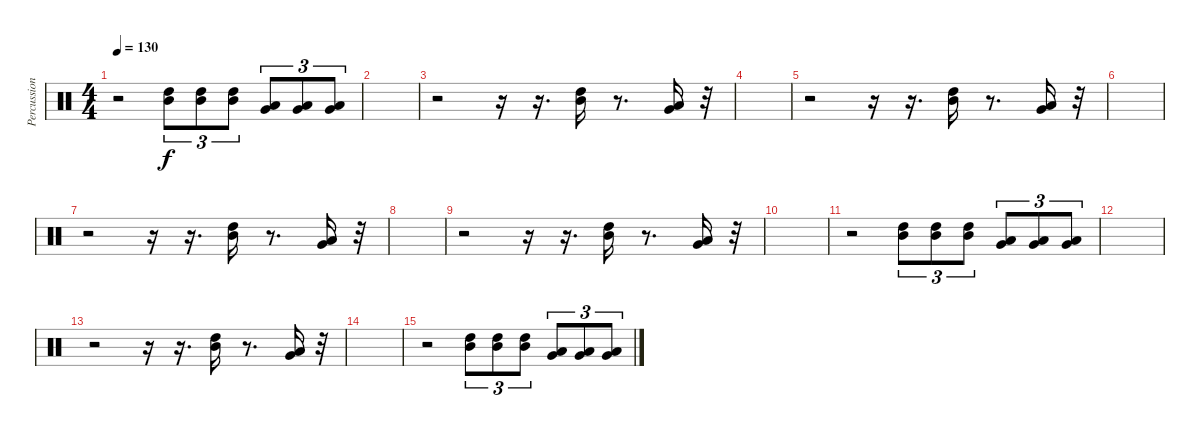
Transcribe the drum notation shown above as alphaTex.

\track ("Percussion" "Percussion") {instrument percussion bank 177}
\staff {score}
\articulation defaults
\ts (4 4)
\tempo 130
\clef neutral
\ks c
r.2{dy f} ("High Tom (hit)" "Mid Tom (hit)").8{tu (3 2)} ("High Tom (hit)" "Mid Tom (hit)").8{tu (3 2)} ("High Tom (hit)" "Mid Tom (hit)").8{tu (3 2)} ("Low Tom (hit)" "Very Low Tom (hit)").8{tu (3 2)} ("Low Tom (hit)" "Very Low Tom (hit)").8{tu (3 2)} ("Low Tom (hit)" "Very Low Tom (hit)").8{tu (3 2)} |
|
r.2 r.16 r.16{d} ("High Tom (hit)" "Mid Tom (hit)").16 r.8{d} ("Low Tom (hit)" "Very Low Tom (hit)").16 r.32 |
|
r.2 r.16 r.16{d} ("High Tom (hit)" "Mid Tom (hit)").16 r.8{d} ("Low Tom (hit)" "Very Low Tom (hit)").16 r.32 |
|
r.2 r.16 r.16{d} ("High Tom (hit)" "Mid Tom (hit)").16 r.8{d} ("Low Tom (hit)" "Very Low Tom (hit)").16 r.32 |
|
r.2 r.16 r.16{d} ("High Tom (hit)" "Mid Tom (hit)").16 r.8{d} ("Low Tom (hit)" "Very Low Tom (hit)").16 r.32 |
|
r.2 ("High Tom (hit)" "Mid Tom (hit)").8{tu (3 2)} ("High Tom (hit)" "Mid Tom (hit)").8{tu (3 2)} ("High Tom (hit)" "Mid Tom (hit)").8{tu (3 2)} ("Low Tom (hit)" "Very Low Tom (hit)").8{tu (3 2)} ("Low Tom (hit)" "Very Low Tom (hit)").8{tu (3 2)} ("Low Tom (hit)" "Very Low Tom (hit)").8{tu (3 2)} |
|
r.2 r.16 r.16{d} ("High Tom (hit)" "Mid Tom (hit)").16 r.8{d} ("Low Tom (hit)" "Very Low Tom (hit)").16 r.32 |
|
r.2 ("High Tom (hit)" "Mid Tom (hit)").8{tu (3 2)} ("High Tom (hit)" "Mid Tom (hit)").8{tu (3 2)} ("High Tom (hit)" "Mid Tom (hit)").8{tu (3 2)} ("Low Tom (hit)" "Very Low Tom (hit)").8{tu (3 2)} ("Low Tom (hit)" "Very Low Tom (hit)").8{tu (3 2)} ("Low Tom (hit)" "Very Low Tom (hit)").8{tu (3 2)}
